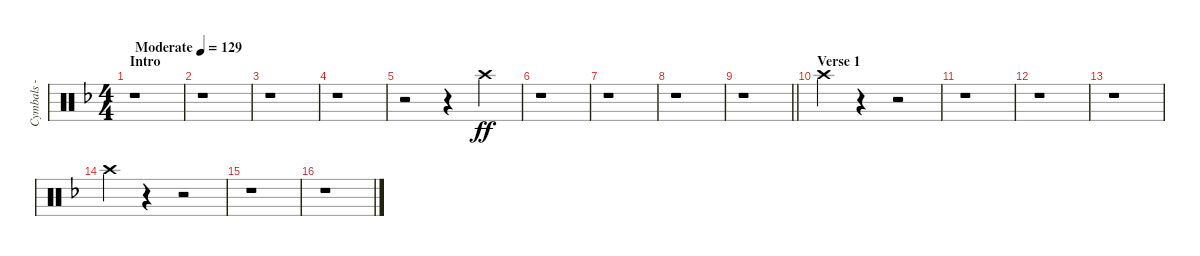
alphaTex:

\track ("Cymbals - crash" "Cymbals - ") {instrument percussion}
\staff {score}
\articulation defaults
\ts (4 4)
\section ("" "Intro")
\tempo (129 "Moderate")
\clef neutral
\ks dminor
r.1{dy ff volume 8} |
r.1 |
r.1 |
r.1 |
r.2 r.4 "Crash high (hit)".4 |
r.1 |
r.1 |
r.1 |
\barLineRight lightlight
r.1 |
\section ("" "Verse 1")
"Crash high (hit)".4 r.4 r.2 |
r.1 |
r.1 |
r.1 |
"Crash high (hit)".4 r.4 r.2 |
r.1 |
r.1
